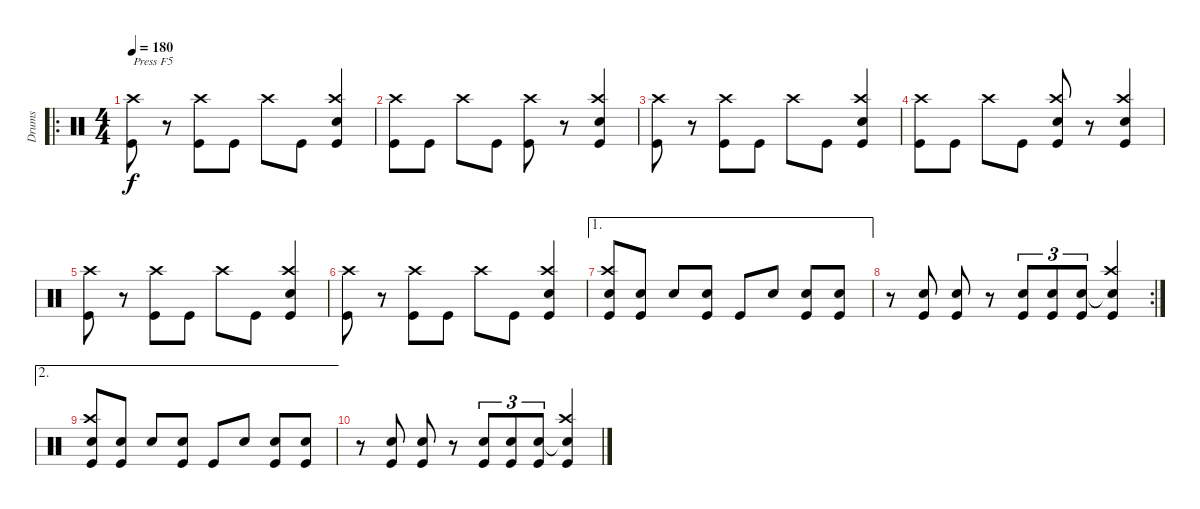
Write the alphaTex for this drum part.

\track ("Drums" "Drums") {instrument percussion}
\staff {score}
\articulation defaults
\ro
\ts (4 4)
\tempo 180
\clef neutral
\ks c
("Kick (hit)" "Crash high (hit)").8{txt "Press F5" dy f} r.8 ("Kick (hit)" "Crash high (hit)").8 "Kick (hit)".8 "Crash high (hit)".8 "Kick (hit)".8 ("Kick (hit)" "Electric Snare (hit)" "Crash high (hit)").4 |
("Kick (hit)" "Crash high (hit)").8 "Kick (hit)".8 "Crash high (hit)".8 "Kick (hit)".8 ("Kick (hit)" "Crash high (hit)").8 r.8 ("Kick (hit)" "Electric Snare (hit)" "Crash high (hit)").4 |
("Kick (hit)" "Crash high (hit)").8 r.8 ("Kick (hit)" "Crash high (hit)").8 "Kick (hit)".8 "Crash high (hit)".8 "Kick (hit)".8 ("Kick (hit)" "Electric Snare (hit)" "Crash high (hit)").4 |
("Kick (hit)" "Crash high (hit)").8 "Kick (hit)".8 "Crash high (hit)".8 "Kick (hit)".8 ("Kick (hit)" "Electric Snare (hit)" "Crash high (hit)").8 r.8 ("Kick (hit)" "Electric Snare (hit)" "Crash high (hit)").4 |
("Kick (hit)" "Crash high (hit)").8 r.8 ("Kick (hit)" "Crash high (hit)").8 "Kick (hit)".8 "Crash high (hit)".8 "Kick (hit)".8 ("Kick (hit)" "Electric Snare (hit)" "Crash high (hit)").4 |
("Kick (hit)" "Crash high (hit)").8 r.8 ("Kick (hit)" "Crash high (hit)").8 "Kick (hit)".8 "Crash high (hit)".8 "Kick (hit)".8 ("Kick (hit)" "Electric Snare (hit)" "Crash high (hit)").4 |
\ae 1
("Kick (hit)" "Electric Snare (hit)" "Crash high (hit)").8 ("Kick (hit)" "Electric Snare (hit)").8 "Electric Snare (hit)".8 ("Kick (hit)" "Electric Snare (hit)").8 "Kick (hit)".8 "Electric Snare (hit)".8 ("Kick (hit)" "Electric Snare (hit)").8 ("Kick (hit)" "Electric Snare (hit)").8 |
\rc 2
r.8 ("Kick (hit)" "Electric Snare (hit)").8 ("Kick (hit)" "Electric Snare (hit)").8 r.8 ("Kick (hit)" "Electric Snare (hit)").8{tu (3 2)} ("Kick (hit)" "Electric Snare (hit)").8{tu (3 2)} ("Kick (hit)" "Electric Snare (hit)").8{tu (3 2)} ("Kick (hit)" "Snare (hit)"{t} "Crash high (hit)").4 |
\ae 2
("Kick (hit)" "Electric Snare (hit)" "Crash high (hit)").8 ("Kick (hit)" "Electric Snare (hit)").8 "Electric Snare (hit)".8 ("Kick (hit)" "Electric Snare (hit)").8 "Kick (hit)".8 "Electric Snare (hit)".8 ("Kick (hit)" "Electric Snare (hit)").8 ("Kick (hit)" "Electric Snare (hit)").8 |
r.8 ("Kick (hit)" "Electric Snare (hit)").8 ("Kick (hit)" "Electric Snare (hit)").8 r.8 ("Kick (hit)" "Electric Snare (hit)").8{tu (3 2)} ("Kick (hit)" "Electric Snare (hit)").8{tu (3 2)} ("Kick (hit)" "Electric Snare (hit)").8{tu (3 2)} ("Kick (hit)" "Snare (hit)"{t} "Crash high (hit)").4
